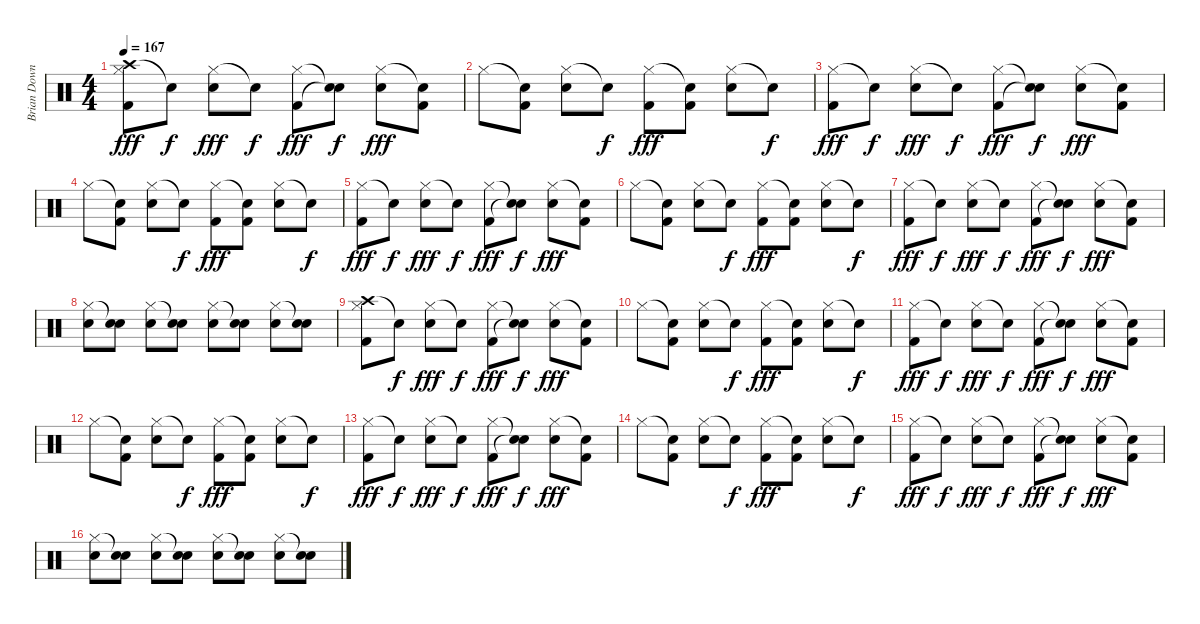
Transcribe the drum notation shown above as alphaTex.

\track ("Brian Downey" "Brian Down") {instrument percussion}
\staff {score}
\articulation defaults
\ts (4 4)
\tempo 167
\clef neutral
\ks c
("Crash high (hit)" "Hi-Hat (closed)" "Kick (hit) 2").8{dy fff} "Snare (hit)"{t}.8{dy f} ("Hi-Hat (closed)" "Electric Snare (hit)").8{dy fff} "Snare (hit)"{t}.8{dy f} ("Hi-Hat (closed)" "Kick (hit) 2").8{dy fff} ("Snare (hit)"{t} "Electric Snare (hit)"{t}).8{dy f} ("Hi-Hat (closed)" "Electric Snare (hit)").8{dy fff} ("Snare (hit)"{t} "Kick (hit) 2").8 |
"Hi-Hat (closed)".8 ("Snare (hit)"{t} "Kick (hit) 2").8 ("Hi-Hat (closed)" "Electric Snare (hit)").8 "Snare (hit)"{t}.8{dy f} ("Hi-Hat (closed)" "Kick (hit) 2").8{dy fff} ("Snare (hit)"{t} "Kick (hit) 2").8 ("Hi-Hat (closed)" "Electric Snare (hit)").8 "Snare (hit)"{t}.8{dy f} |
("Hi-Hat (closed)" "Kick (hit) 2").8{dy fff} "Snare (hit)"{t}.8{dy f} ("Hi-Hat (closed)" "Electric Snare (hit)").8{dy fff} "Snare (hit)"{t}.8{dy f} ("Hi-Hat (closed)" "Kick (hit) 2").8{dy fff} ("Snare (hit)"{t} "Electric Snare (hit)"{t}).8{dy f} ("Hi-Hat (closed)" "Electric Snare (hit)").8{dy fff} ("Snare (hit)"{t} "Kick (hit) 2").8 |
"Hi-Hat (closed)".8 ("Snare (hit)"{t} "Kick (hit) 2").8 ("Hi-Hat (closed)" "Electric Snare (hit)").8 "Snare (hit)"{t}.8{dy f} ("Hi-Hat (closed)" "Kick (hit) 2").8{dy fff} ("Snare (hit)"{t} "Kick (hit) 2").8 ("Hi-Hat (closed)" "Electric Snare (hit)").8 "Snare (hit)"{t}.8{dy f} |
("Hi-Hat (closed)" "Kick (hit) 2").8{dy fff} "Snare (hit)"{t}.8{dy f} ("Hi-Hat (closed)" "Electric Snare (hit)").8{dy fff} "Snare (hit)"{t}.8{dy f} ("Hi-Hat (closed)" "Kick (hit) 2").8{dy fff} ("Snare (hit)"{t} "Electric Snare (hit)"{t}).8{dy f} ("Hi-Hat (closed)" "Electric Snare (hit)").8{dy fff} ("Snare (hit)"{t} "Kick (hit) 2").8 |
"Hi-Hat (closed)".8 ("Snare (hit)"{t} "Kick (hit) 2").8 ("Hi-Hat (closed)" "Electric Snare (hit)").8 "Snare (hit)"{t}.8{dy f} ("Hi-Hat (closed)" "Kick (hit) 2").8{dy fff} ("Snare (hit)"{t} "Kick (hit) 2").8 ("Hi-Hat (closed)" "Electric Snare (hit)").8 "Snare (hit)"{t}.8{dy f} |
("Hi-Hat (closed)" "Kick (hit) 2").8{dy fff} "Snare (hit)"{t}.8{dy f} ("Hi-Hat (closed)" "Electric Snare (hit)").8{dy fff} "Snare (hit)"{t}.8{dy f} ("Hi-Hat (closed)" "Kick (hit) 2").8{dy fff} ("Snare (hit)"{t} "Electric Snare (hit)"{t}).8{dy f} ("Hi-Hat (closed)" "Electric Snare (hit)").8{dy fff} ("Snare (hit)"{t} "Kick (hit) 2").8 |
("Hi-Hat (closed)" "Electric Snare (hit)").8 ("Snare (hit)"{t} "Electric Snare (hit)").8 ("Hi-Hat (closed)" "Electric Snare (hit)").8 ("Snare (hit)"{t} "Electric Snare (hit)").8 ("Hi-Hat (closed)" "Electric Snare (hit)").8 ("Snare (hit)"{t} "Electric Snare (hit)").8 ("Hi-Hat (closed)" "Electric Snare (hit)").8 ("Snare (hit)"{t} "Electric Snare (hit)").8 |
("Crash high (hit)" "Hi-Hat (closed)" "Kick (hit) 2").8 "Snare (hit)"{t}.8{dy f} ("Hi-Hat (closed)" "Electric Snare (hit)").8{dy fff} "Snare (hit)"{t}.8{dy f} ("Hi-Hat (closed)" "Kick (hit) 2").8{dy fff} ("Snare (hit)"{t} "Electric Snare (hit)"{t}).8{dy f} ("Hi-Hat (closed)" "Electric Snare (hit)").8{dy fff} ("Snare (hit)"{t} "Kick (hit) 2").8 |
"Hi-Hat (closed)".8 ("Snare (hit)"{t} "Kick (hit) 2").8 ("Hi-Hat (closed)" "Electric Snare (hit)").8 "Snare (hit)"{t}.8{dy f} ("Hi-Hat (closed)" "Kick (hit) 2").8{dy fff} ("Snare (hit)"{t} "Kick (hit) 2").8 ("Hi-Hat (closed)" "Electric Snare (hit)").8 "Snare (hit)"{t}.8{dy f} |
("Hi-Hat (closed)" "Kick (hit) 2").8{dy fff} "Snare (hit)"{t}.8{dy f} ("Hi-Hat (closed)" "Electric Snare (hit)").8{dy fff} "Snare (hit)"{t}.8{dy f} ("Hi-Hat (closed)" "Kick (hit) 2").8{dy fff} ("Snare (hit)"{t} "Electric Snare (hit)"{t}).8{dy f} ("Hi-Hat (closed)" "Electric Snare (hit)").8{dy fff} ("Snare (hit)"{t} "Kick (hit) 2").8 |
"Hi-Hat (closed)".8 ("Snare (hit)"{t} "Kick (hit) 2").8 ("Hi-Hat (closed)" "Electric Snare (hit)").8 "Snare (hit)"{t}.8{dy f} ("Hi-Hat (closed)" "Kick (hit) 2").8{dy fff} ("Snare (hit)"{t} "Kick (hit) 2").8 ("Hi-Hat (closed)" "Electric Snare (hit)").8 "Snare (hit)"{t}.8{dy f} |
("Hi-Hat (closed)" "Kick (hit) 2").8{dy fff} "Snare (hit)"{t}.8{dy f} ("Hi-Hat (closed)" "Electric Snare (hit)").8{dy fff} "Snare (hit)"{t}.8{dy f} ("Hi-Hat (closed)" "Kick (hit) 2").8{dy fff} ("Snare (hit)"{t} "Electric Snare (hit)"{t}).8{dy f} ("Hi-Hat (closed)" "Electric Snare (hit)").8{dy fff} ("Snare (hit)"{t} "Kick (hit) 2").8 |
"Hi-Hat (closed)".8 ("Snare (hit)"{t} "Kick (hit) 2").8 ("Hi-Hat (closed)" "Electric Snare (hit)").8 "Snare (hit)"{t}.8{dy f} ("Hi-Hat (closed)" "Kick (hit) 2").8{dy fff} ("Snare (hit)"{t} "Kick (hit) 2").8 ("Hi-Hat (closed)" "Electric Snare (hit)").8 "Snare (hit)"{t}.8{dy f} |
("Hi-Hat (closed)" "Kick (hit) 2").8{dy fff} "Snare (hit)"{t}.8{dy f} ("Hi-Hat (closed)" "Electric Snare (hit)").8{dy fff} "Snare (hit)"{t}.8{dy f} ("Hi-Hat (closed)" "Kick (hit) 2").8{dy fff} ("Snare (hit)"{t} "Electric Snare (hit)"{t}).8{dy f} ("Hi-Hat (closed)" "Electric Snare (hit)").8{dy fff} ("Snare (hit)"{t} "Kick (hit) 2").8 |
("Hi-Hat (closed)" "Electric Snare (hit)").8 ("Snare (hit)"{t} "Electric Snare (hit)").8 ("Hi-Hat (closed)" "Electric Snare (hit)").8 ("Snare (hit)"{t} "Electric Snare (hit)").8 ("Hi-Hat (closed)" "Electric Snare (hit)").8 ("Snare (hit)"{t} "Electric Snare (hit)").8 ("Hi-Hat (closed)" "Electric Snare (hit)").8 ("Snare (hit)"{t} "Electric Snare (hit)").8
